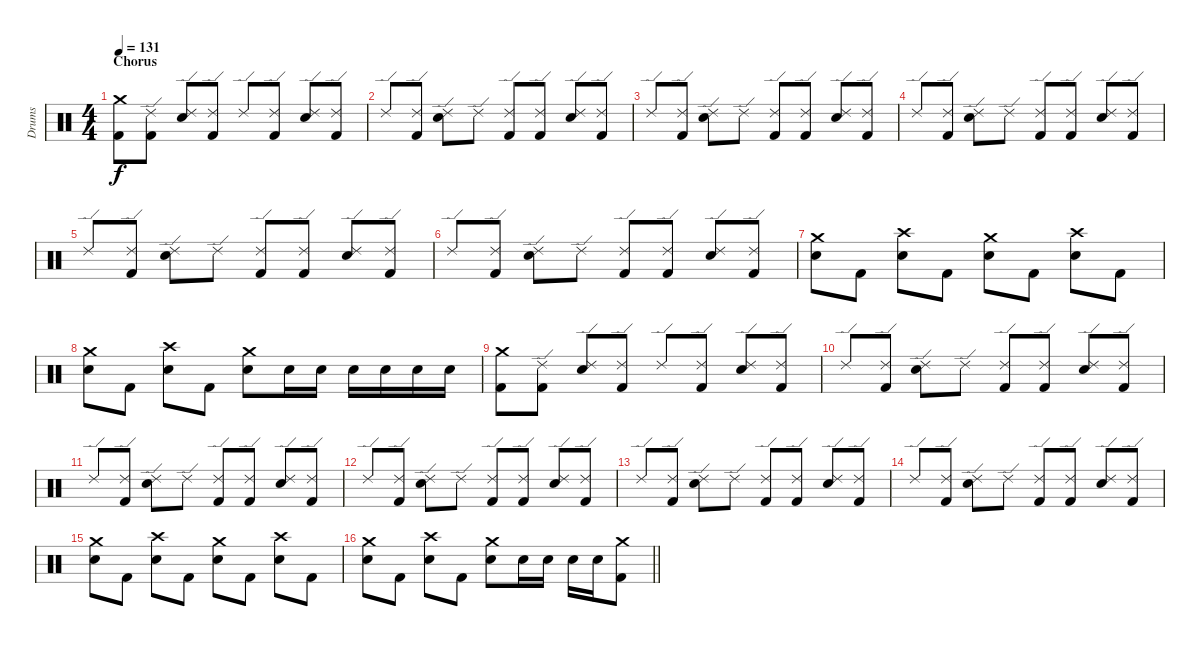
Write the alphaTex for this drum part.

\track ("Drums" "Drums") {instrument percussion}
\staff {score}
\articulation defaults
\ts (4 4)
\section ("" "Chorus")
\tempo 131
\clef neutral
\ks c
("Crash medium (hit)" "Kick (hit) 2").8{dy f} ("Ride (edge) 2" "Kick (hit) 2").8 ("Ride (edge) 2" "Snare (hit) 2").8 ("Ride (edge) 2" "Kick (hit) 2").8 "Ride (edge) 2".8 ("Ride (edge) 2" "Kick (hit) 2").8 ("Ride (edge) 2" "Snare (hit) 2").8 ("Ride (edge) 2" "Kick (hit) 2").8 |
"Ride (edge) 2".8 ("Ride (edge) 2" "Kick (hit) 2").8 ("Ride (edge) 2" "Snare (hit) 2").8 "Ride (edge) 2".8 ("Ride (edge) 2" "Kick (hit) 2").8 ("Ride (edge) 2" "Kick (hit) 2").8 ("Ride (edge) 2" "Snare (hit) 2").8 ("Ride (edge) 2" "Kick (hit) 2").8 |
"Ride (edge) 2".8 ("Ride (edge) 2" "Kick (hit) 2").8 ("Ride (edge) 2" "Snare (hit) 2").8 "Ride (edge) 2".8 ("Ride (edge) 2" "Kick (hit) 2").8 ("Ride (edge) 2" "Kick (hit) 2").8 ("Ride (edge) 2" "Snare (hit) 2").8 ("Ride (edge) 2" "Kick (hit) 2").8 |
"Ride (edge) 2".8 ("Ride (edge) 2" "Kick (hit) 2").8 ("Ride (edge) 2" "Snare (hit) 2").8 "Ride (edge) 2".8 ("Ride (edge) 2" "Kick (hit) 2").8 ("Ride (edge) 2" "Kick (hit) 2").8 ("Ride (edge) 2" "Snare (hit) 2").8 ("Ride (edge) 2" "Kick (hit) 2").8 |
"Ride (edge) 2".8 ("Ride (edge) 2" "Kick (hit) 2").8 ("Ride (edge) 2" "Snare (hit) 2").8 "Ride (edge) 2".8 ("Ride (edge) 2" "Kick (hit) 2").8 ("Ride (edge) 2" "Kick (hit) 2").8 ("Ride (edge) 2" "Snare (hit) 2").8 ("Ride (edge) 2" "Kick (hit) 2").8 |
"Ride (edge) 2".8 ("Ride (edge) 2" "Kick (hit) 2").8 ("Ride (edge) 2" "Snare (hit) 2").8 "Ride (edge) 2".8 ("Ride (edge) 2" "Kick (hit) 2").8 ("Ride (edge) 2" "Kick (hit) 2").8 ("Ride (edge) 2" "Snare (hit) 2").8 ("Ride (edge) 2" "Kick (hit) 2").8 |
("Crash medium (hit)" "Snare (hit) 2").8 "Kick (hit) 2".8 ("Crash high (hit)" "Snare (hit) 2").8 "Kick (hit) 2".8 ("Crash medium (hit)" "Snare (hit) 2").8 "Kick (hit) 2".8 ("Crash high (hit)" "Snare (hit) 2").8 "Kick (hit) 2".8 |
("Crash medium (hit)" "Snare (hit) 2").8 "Kick (hit) 2".8 ("Crash high (hit)" "Snare (hit) 2").8 "Kick (hit) 2".8 ("Crash medium (hit)" "Snare (hit) 2").8 "Snare (hit) 2".16 "Snare (hit) 2".16 "Snare (hit) 2".16 "Snare (hit) 2".16 "Snare (hit) 2".16 "Snare (hit) 2".16 |
("Crash medium (hit)" "Kick (hit) 2").8 ("Ride (edge) 2" "Kick (hit) 2").8 ("Ride (edge) 2" "Snare (hit) 2").8 ("Ride (edge) 2" "Kick (hit) 2").8 "Ride (edge) 2".8 ("Ride (edge) 2" "Kick (hit) 2").8 ("Ride (edge) 2" "Snare (hit) 2").8 ("Ride (edge) 2" "Kick (hit) 2").8 |
"Ride (edge) 2".8 ("Ride (edge) 2" "Kick (hit) 2").8 ("Ride (edge) 2" "Snare (hit) 2").8 "Ride (edge) 2".8 ("Ride (edge) 2" "Kick (hit) 2").8 ("Ride (edge) 2" "Kick (hit) 2").8 ("Ride (edge) 2" "Snare (hit) 2").8 ("Ride (edge) 2" "Kick (hit) 2").8 |
"Ride (edge) 2".8 ("Ride (edge) 2" "Kick (hit) 2").8 ("Ride (edge) 2" "Snare (hit) 2").8 "Ride (edge) 2".8 ("Ride (edge) 2" "Kick (hit) 2").8 ("Ride (edge) 2" "Kick (hit) 2").8 ("Ride (edge) 2" "Snare (hit) 2").8 ("Ride (edge) 2" "Kick (hit) 2").8 |
"Ride (edge) 2".8 ("Ride (edge) 2" "Kick (hit) 2").8 ("Ride (edge) 2" "Snare (hit) 2").8 "Ride (edge) 2".8 ("Ride (edge) 2" "Kick (hit) 2").8 ("Ride (edge) 2" "Kick (hit) 2").8 ("Ride (edge) 2" "Snare (hit) 2").8 ("Ride (edge) 2" "Kick (hit) 2").8 |
"Ride (edge) 2".8 ("Ride (edge) 2" "Kick (hit) 2").8 ("Ride (edge) 2" "Snare (hit) 2").8 "Ride (edge) 2".8 ("Ride (edge) 2" "Kick (hit) 2").8 ("Ride (edge) 2" "Kick (hit) 2").8 ("Ride (edge) 2" "Snare (hit) 2").8 ("Ride (edge) 2" "Kick (hit) 2").8 |
"Ride (edge) 2".8 ("Ride (edge) 2" "Kick (hit) 2").8 ("Ride (edge) 2" "Snare (hit) 2").8 "Ride (edge) 2".8 ("Ride (edge) 2" "Kick (hit) 2").8 ("Ride (edge) 2" "Kick (hit) 2").8 ("Ride (edge) 2" "Snare (hit) 2").8 ("Ride (edge) 2" "Kick (hit) 2").8 |
("Crash medium (hit)" "Snare (hit) 2").8 "Kick (hit) 2".8 ("Crash high (hit)" "Snare (hit) 2").8 "Kick (hit) 2".8 ("Crash medium (hit)" "Snare (hit) 2").8 "Kick (hit) 2".8 ("Crash high (hit)" "Snare (hit) 2").8 "Kick (hit) 2".8 |
\barLineRight lightlight
("Crash medium (hit)" "Snare (hit) 2").8 "Kick (hit) 2".8 ("Crash high (hit)" "Snare (hit) 2").8 "Kick (hit) 2".8 ("Crash medium (hit)" "Snare (hit) 2").8 "Snare (hit) 2".16 "Snare (hit) 2".16 "Snare (hit) 2".16 "Snare (hit) 2".16 ("Crash medium (hit)" "Kick (hit) 2").8
